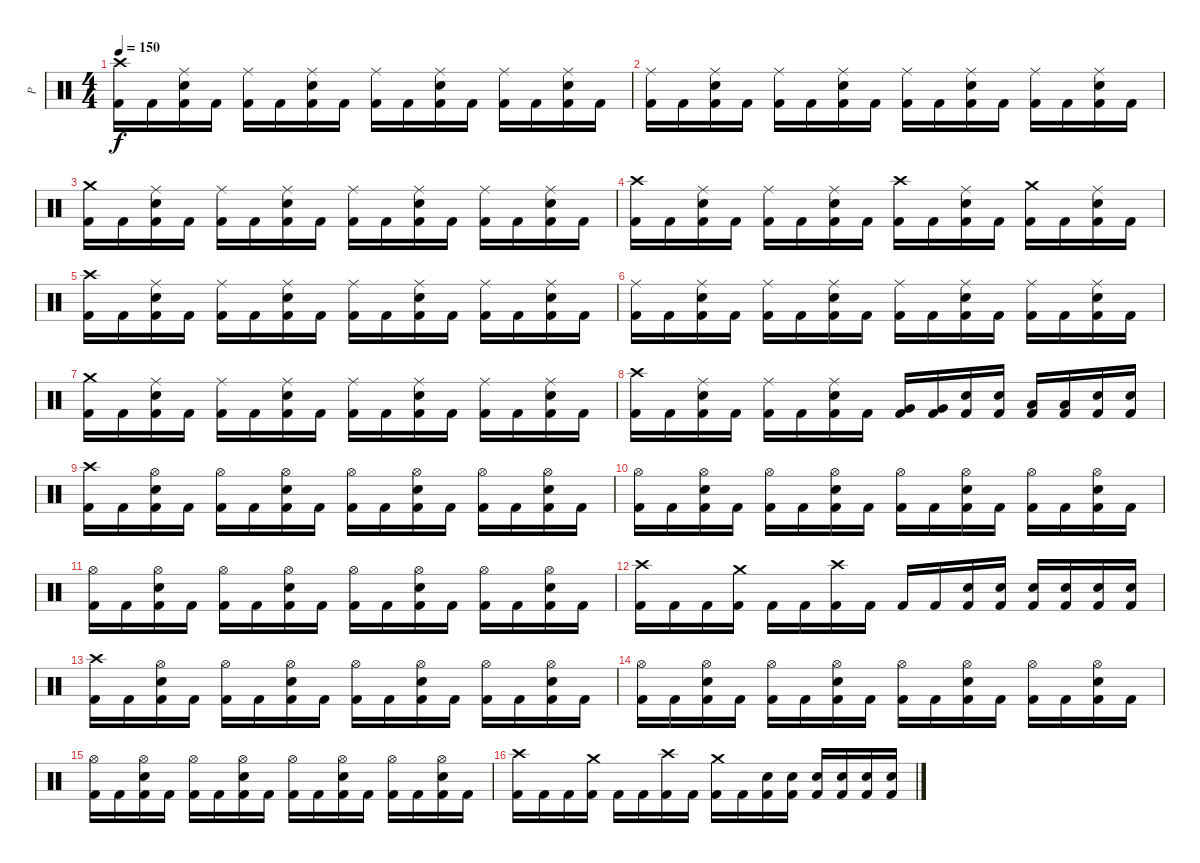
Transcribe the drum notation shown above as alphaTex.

\track ("P" "P") {instrument percussion}
\staff {score}
\articulation defaults
\ts (4 4)
\tempo 150
\clef neutral
\ks c
("Crash high (hit)" "Kick (hit) 2").16{dy f} "Kick (hit) 2".16 ("Ride (middle)" "Electric Snare (hit)" "Kick (hit) 2").16 "Kick (hit) 2".16 ("Ride (middle)" "Kick (hit) 2").16 "Kick (hit) 2".16 ("Ride (middle)" "Electric Snare (hit)" "Kick (hit) 2").16 "Kick (hit) 2".16 ("Ride (middle)" "Kick (hit) 2").16 "Kick (hit) 2".16 ("Ride (middle)" "Electric Snare (hit)" "Kick (hit) 2").16 "Kick (hit) 2".16 ("Ride (middle)" "Kick (hit) 2").16 "Kick (hit) 2".16 ("Ride (middle)" "Electric Snare (hit)" "Kick (hit) 2").16 "Kick (hit) 2".16 |
("Ride (middle)" "Kick (hit) 2").16 "Kick (hit) 2".16 ("Ride (middle)" "Electric Snare (hit)" "Kick (hit) 2").16 "Kick (hit) 2".16 ("Ride (middle)" "Kick (hit) 2").16 "Kick (hit) 2".16 ("Ride (middle)" "Electric Snare (hit)" "Kick (hit) 2").16 "Kick (hit) 2".16 ("Ride (middle)" "Kick (hit) 2").16 "Kick (hit) 2".16 ("Ride (middle)" "Electric Snare (hit)" "Kick (hit) 2").16 "Kick (hit) 2".16 ("Ride (middle)" "Kick (hit) 2").16 "Kick (hit) 2".16 ("Ride (middle)" "Electric Snare (hit)" "Kick (hit) 2").16 "Kick (hit) 2".16 |
("Crash medium (hit)" "Kick (hit) 2").16 "Kick (hit) 2".16 ("Ride (middle)" "Electric Snare (hit)" "Kick (hit) 2").16 "Kick (hit) 2".16 ("Ride (middle)" "Kick (hit) 2").16 "Kick (hit) 2".16 ("Ride (middle)" "Electric Snare (hit)" "Kick (hit) 2").16 "Kick (hit) 2".16 ("Ride (middle)" "Kick (hit) 2").16 "Kick (hit) 2".16 ("Ride (middle)" "Electric Snare (hit)" "Kick (hit) 2").16 "Kick (hit) 2".16 ("Ride (middle)" "Kick (hit) 2").16 "Kick (hit) 2".16 ("Ride (middle)" "Electric Snare (hit)" "Kick (hit) 2").16 "Kick (hit) 2".16 |
("Crash high (hit)" "Kick (hit) 2").16 "Kick (hit) 2".16 ("Ride (middle)" "Electric Snare (hit)" "Kick (hit) 2").16 "Kick (hit) 2".16 ("Ride (middle)" "Kick (hit) 2").16 "Kick (hit) 2".16 ("Ride (middle)" "Electric Snare (hit)" "Kick (hit) 2").16 "Kick (hit) 2".16 ("Crash high (hit)" "Kick (hit) 2").16 "Kick (hit) 2".16 ("Ride (middle)" "Electric Snare (hit)" "Kick (hit) 2").16 "Kick (hit) 2".16 ("Crash medium (hit)" "Kick (hit) 2").16 "Kick (hit) 2".16 ("Ride (middle)" "Electric Snare (hit)" "Kick (hit) 2").16 "Kick (hit) 2".16 |
("Crash high (hit)" "Kick (hit) 2").16 "Kick (hit) 2".16 ("Ride (middle)" "Electric Snare (hit)" "Kick (hit) 2").16 "Kick (hit) 2".16 ("Ride (middle)" "Kick (hit) 2").16 "Kick (hit) 2".16 ("Ride (middle)" "Electric Snare (hit)" "Kick (hit) 2").16 "Kick (hit) 2".16 ("Ride (middle)" "Kick (hit) 2").16 "Kick (hit) 2".16 ("Ride (middle)" "Electric Snare (hit)" "Kick (hit) 2").16 "Kick (hit) 2".16 ("Ride (middle)" "Kick (hit) 2").16 "Kick (hit) 2".16 ("Ride (middle)" "Electric Snare (hit)" "Kick (hit) 2").16 "Kick (hit) 2".16 |
("Ride (middle)" "Kick (hit) 2").16 "Kick (hit) 2".16 ("Ride (middle)" "Electric Snare (hit)" "Kick (hit) 2").16 "Kick (hit) 2".16 ("Ride (middle)" "Kick (hit) 2").16 "Kick (hit) 2".16 ("Ride (middle)" "Electric Snare (hit)" "Kick (hit) 2").16 "Kick (hit) 2".16 ("Ride (middle)" "Kick (hit) 2").16 "Kick (hit) 2".16 ("Ride (middle)" "Electric Snare (hit)" "Kick (hit) 2").16 "Kick (hit) 2".16 ("Ride (middle)" "Kick (hit) 2").16 "Kick (hit) 2".16 ("Ride (middle)" "Electric Snare (hit)" "Kick (hit) 2").16 "Kick (hit) 2".16 |
("Crash medium (hit)" "Kick (hit) 2").16 "Kick (hit) 2".16 ("Ride (middle)" "Electric Snare (hit)" "Kick (hit) 2").16 "Kick (hit) 2".16 ("Ride (middle)" "Kick (hit) 2").16 "Kick (hit) 2".16 ("Ride (middle)" "Electric Snare (hit)" "Kick (hit) 2").16 "Kick (hit) 2".16 ("Ride (middle)" "Kick (hit) 2").16 "Kick (hit) 2".16 ("Ride (middle)" "Electric Snare (hit)" "Kick (hit) 2").16 "Kick (hit) 2".16 ("Ride (middle)" "Kick (hit) 2").16 "Kick (hit) 2".16 ("Ride (middle)" "Electric Snare (hit)" "Kick (hit) 2").16 "Kick (hit) 2".16 |
("Crash high (hit)" "Kick (hit) 2").16 "Kick (hit) 2".16 ("Ride (middle)" "Electric Snare (hit)" "Kick (hit) 2").16 "Kick (hit) 2".16 ("Ride (middle)" "Kick (hit) 2").16 "Kick (hit) 2".16 ("Ride (middle)" "Electric Snare (hit)" "Kick (hit) 2").16 "Kick (hit) 2".16 ("Very Low Tom (hit)" "Kick (hit) 2").16 ("Very Low Tom (hit)" "Kick (hit) 2").16 ("Electric Snare (hit)" "Kick (hit) 2").16 ("Electric Snare (hit)" "Kick (hit) 2").16 ("Low Tom (hit)" "Kick (hit) 2").16 ("Low Tom (hit)" "Kick (hit) 2").16 ("Electric Snare (hit)" "Kick (hit) 2").16 ("Electric Snare (hit)" "Kick (hit) 2").16 |
("Crash high (hit)" "Kick (hit) 2").16 "Kick (hit) 2".16 ("Hi-Hat (open)" "Electric Snare (hit)" "Kick (hit) 2").16 "Kick (hit) 2".16 ("Hi-Hat (open)" "Kick (hit) 2").16 "Kick (hit) 2".16 ("Hi-Hat (open)" "Electric Snare (hit)" "Kick (hit) 2").16 "Kick (hit) 2".16 ("Hi-Hat (open)" "Kick (hit) 2").16 "Kick (hit) 2".16 ("Hi-Hat (open)" "Electric Snare (hit)" "Kick (hit) 2").16 "Kick (hit) 2".16 ("Hi-Hat (open)" "Kick (hit) 2").16 "Kick (hit) 2".16 ("Hi-Hat (open)" "Electric Snare (hit)" "Kick (hit) 2").16 "Kick (hit) 2".16 |
("Hi-Hat (open)" "Kick (hit) 2").16 "Kick (hit) 2".16 ("Hi-Hat (open)" "Electric Snare (hit)" "Kick (hit) 2").16 "Kick (hit) 2".16 ("Hi-Hat (open)" "Kick (hit) 2").16 "Kick (hit) 2".16 ("Hi-Hat (open)" "Electric Snare (hit)" "Kick (hit) 2").16 "Kick (hit) 2".16 ("Hi-Hat (open)" "Kick (hit) 2").16 "Kick (hit) 2".16 ("Hi-Hat (open)" "Electric Snare (hit)" "Kick (hit) 2").16 "Kick (hit) 2".16 ("Hi-Hat (open)" "Kick (hit) 2").16 "Kick (hit) 2".16 ("Hi-Hat (open)" "Electric Snare (hit)" "Kick (hit) 2").16 "Kick (hit) 2".16 |
("Hi-Hat (open)" "Kick (hit) 2").16 "Kick (hit) 2".16 ("Hi-Hat (open)" "Electric Snare (hit)" "Kick (hit) 2").16 "Kick (hit) 2".16 ("Hi-Hat (open)" "Kick (hit) 2").16 "Kick (hit) 2".16 ("Hi-Hat (open)" "Electric Snare (hit)" "Kick (hit) 2").16 "Kick (hit) 2".16 ("Hi-Hat (open)" "Kick (hit) 2").16 "Kick (hit) 2".16 ("Hi-Hat (open)" "Electric Snare (hit)" "Kick (hit) 2").16 "Kick (hit) 2".16 ("Hi-Hat (open)" "Kick (hit) 2").16 "Kick (hit) 2".16 ("Hi-Hat (open)" "Electric Snare (hit)" "Kick (hit) 2").16 "Kick (hit) 2".16 |
("Crash high (hit)" "Kick (hit) 2").16 "Kick (hit) 2".16 "Kick (hit) 2".16 ("Crash medium (hit)" "Kick (hit) 2").16 "Kick (hit) 2".16 "Kick (hit) 2".16 ("Crash high (hit)" "Kick (hit) 2").16 "Kick (hit) 2".16 "Kick (hit) 2".16 "Kick (hit) 2".16 ("Electric Snare (hit)" "Kick (hit) 2").16 ("Electric Snare (hit)" "Kick (hit) 2").16 ("Electric Snare (hit)" "Kick (hit) 2").16 ("Electric Snare (hit)" "Kick (hit) 2").16 ("Electric Snare (hit)" "Kick (hit) 2").16 ("Electric Snare (hit)" "Kick (hit) 2").16 |
("Crash high (hit)" "Kick (hit) 2").16 "Kick (hit) 2".16 ("Hi-Hat (open)" "Electric Snare (hit)" "Kick (hit) 2").16 "Kick (hit) 2".16 ("Hi-Hat (open)" "Kick (hit) 2").16 "Kick (hit) 2".16 ("Hi-Hat (open)" "Electric Snare (hit)" "Kick (hit) 2").16 "Kick (hit) 2".16 ("Hi-Hat (open)" "Kick (hit) 2").16 "Kick (hit) 2".16 ("Hi-Hat (open)" "Electric Snare (hit)" "Kick (hit) 2").16 "Kick (hit) 2".16 ("Hi-Hat (open)" "Kick (hit) 2").16 "Kick (hit) 2".16 ("Hi-Hat (open)" "Electric Snare (hit)" "Kick (hit) 2").16 "Kick (hit) 2".16 |
("Hi-Hat (open)" "Kick (hit) 2").16 "Kick (hit) 2".16 ("Hi-Hat (open)" "Electric Snare (hit)" "Kick (hit) 2").16 "Kick (hit) 2".16 ("Hi-Hat (open)" "Kick (hit) 2").16 "Kick (hit) 2".16 ("Hi-Hat (open)" "Electric Snare (hit)" "Kick (hit) 2").16 "Kick (hit) 2".16 ("Hi-Hat (open)" "Kick (hit) 2").16 "Kick (hit) 2".16 ("Hi-Hat (open)" "Electric Snare (hit)" "Kick (hit) 2").16 "Kick (hit) 2".16 ("Hi-Hat (open)" "Kick (hit) 2").16 "Kick (hit) 2".16 ("Hi-Hat (open)" "Electric Snare (hit)" "Kick (hit) 2").16 "Kick (hit) 2".16 |
("Hi-Hat (open)" "Kick (hit) 2").16 "Kick (hit) 2".16 ("Hi-Hat (open)" "Electric Snare (hit)" "Kick (hit) 2").16 "Kick (hit) 2".16 ("Hi-Hat (open)" "Kick (hit) 2").16 "Kick (hit) 2".16 ("Hi-Hat (open)" "Electric Snare (hit)" "Kick (hit) 2").16 "Kick (hit) 2".16 ("Hi-Hat (open)" "Kick (hit) 2").16 "Kick (hit) 2".16 ("Hi-Hat (open)" "Electric Snare (hit)" "Kick (hit) 2").16 "Kick (hit) 2".16 ("Hi-Hat (open)" "Kick (hit) 2").16 "Kick (hit) 2".16 ("Hi-Hat (open)" "Electric Snare (hit)" "Kick (hit) 2").16 "Kick (hit) 2".16 |
("Crash high (hit)" "Kick (hit) 2").16 "Kick (hit) 2".16 "Kick (hit) 2".16 ("Crash medium (hit)" "Kick (hit) 2").16 "Kick (hit) 2".16 "Kick (hit) 2".16 ("Crash high (hit)" "Kick (hit) 2").16 "Kick (hit) 2".16 ("Crash medium (hit)" "Kick (hit) 2").16 "Kick (hit) 2".16 ("Electric Snare (hit)" "Kick (hit) 2").16 ("Electric Snare (hit)" "Kick (hit) 2").16 ("Electric Snare (hit)" "Kick (hit) 2").16 ("Electric Snare (hit)" "Kick (hit) 2").16 ("Electric Snare (hit)" "Kick (hit) 2").16 ("Electric Snare (hit)" "Kick (hit) 2").16
